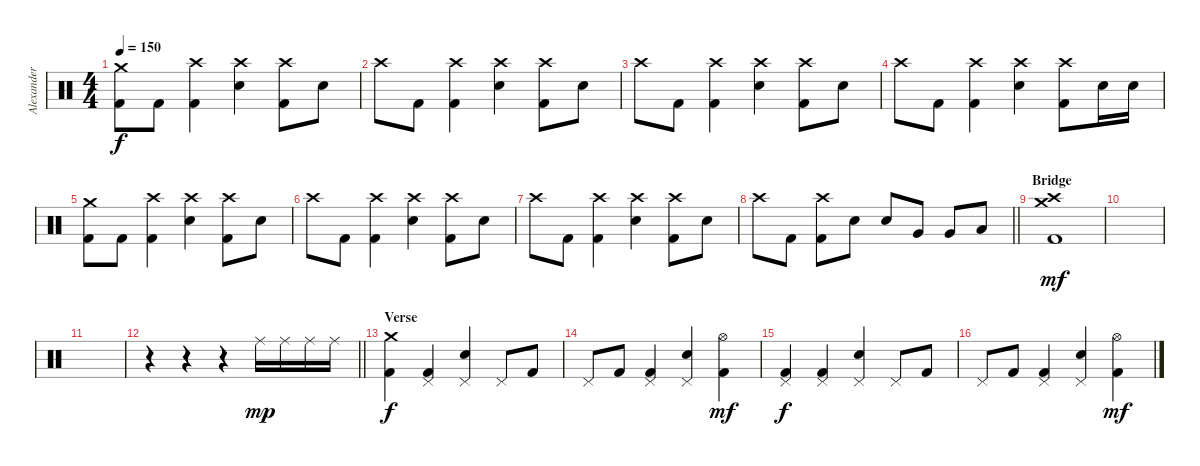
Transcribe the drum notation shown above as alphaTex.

\track ("Alexander Sveningsson" "Alexander ") {instrument percussion}
\staff {score}
\articulation defaults
\ts (4 4)
\tempo 150
\clef neutral
\ks c
("Crash medium (hit)" "Kick (hit) 2").8{dy f} "Kick (hit) 2".8 ("Crash high (hit)" "Kick (hit) 2").4 ("Crash high (hit)" "Electric Snare (hit)").4 ("Crash high (hit)" "Kick (hit) 2").8 "Electric Snare (hit)".8 |
"Crash high (hit)".8 "Kick (hit) 2".8 ("Crash high (hit)" "Kick (hit) 2").4 ("Crash high (hit)" "Electric Snare (hit)").4 ("Crash high (hit)" "Kick (hit) 2").8 "Electric Snare (hit)".8 |
"Crash high (hit)".8 "Kick (hit) 2".8 ("Crash high (hit)" "Kick (hit) 2").4 ("Crash high (hit)" "Electric Snare (hit)").4 ("Crash high (hit)" "Kick (hit) 2").8 "Electric Snare (hit)".8 |
"Crash high (hit)".8 "Kick (hit) 2".8 ("Crash high (hit)" "Kick (hit) 2").4 ("Crash high (hit)" "Electric Snare (hit)").4 ("Crash high (hit)" "Kick (hit) 2").8 "Electric Snare (hit)".16 "Electric Snare (hit)".16 |
("Crash medium (hit)" "Kick (hit) 2").8 "Kick (hit) 2".8 ("Crash high (hit)" "Kick (hit) 2").4 ("Crash high (hit)" "Electric Snare (hit)").4 ("Crash high (hit)" "Kick (hit) 2").8 "Electric Snare (hit)".8 |
"Crash high (hit)".8 "Kick (hit) 2".8 ("Crash high (hit)" "Kick (hit) 2").4 ("Crash high (hit)" "Electric Snare (hit)").4 ("Crash high (hit)" "Kick (hit) 2").8 "Electric Snare (hit)".8 |
"Crash high (hit)".8 "Kick (hit) 2".8 ("Crash high (hit)" "Kick (hit) 2").4 ("Crash high (hit)" "Electric Snare (hit)").4 ("Crash high (hit)" "Kick (hit) 2").8 "Electric Snare (hit)".8 |
\barLineRight lightlight "Crash high (hit)".8 "Kick (hit) 2".8
("Crash high (hit)" "Kick (hit) 2").8 "Electric Snare (hit)".8 "Electric Snare (hit)".8 "Very Low Tom (hit)".8 "Very Low Tom (hit)".8 "Low Floor Tom (hit)".8 |
\section ("" "Bridge")
("Crash medium (hit)" "Crash high (hit)" "Kick (hit) 2").1{dy mf} |
|
|
\barLineRight lightlight
r.4 r.4 r.4 "Ride (middle)".16{dy mp} "Ride (middle)".16 "Ride (middle)".16 "Ride (middle)".16 |
\section ("" "Verse")
("Crash medium (hit)" "Kick (hit) 2").4{dy f} ("Pedal Hi-Hat (hit)" "Kick (hit) 2").4 ("Pedal Hi-Hat (hit)" "Electric Snare (hit)").4 "Pedal Hi-Hat (hit)".8 "Kick (hit) 2".8 |
"Pedal Hi-Hat (hit)".8 "Kick (hit) 2".8 ("Pedal Hi-Hat (hit)" "Kick (hit) 2").4 ("Pedal Hi-Hat (hit)" "Electric Snare (hit)").4 ("Hi-Hat (open)" "Kick (hit) 2").4{dy mf} |
("Pedal Hi-Hat (hit)" "Kick (hit) 2").4{dy f} ("Pedal Hi-Hat (hit)" "Kick (hit) 2").4 ("Pedal Hi-Hat (hit)" "Electric Snare (hit)").4 "Pedal Hi-Hat (hit)".8 "Kick (hit) 2".8 |
"Pedal Hi-Hat (hit)".8 "Kick (hit) 2".8 ("Pedal Hi-Hat (hit)" "Kick (hit) 2").4 ("Pedal Hi-Hat (hit)" "Electric Snare (hit)").4 ("Hi-Hat (open)" "Kick (hit) 2").4{dy mf}
